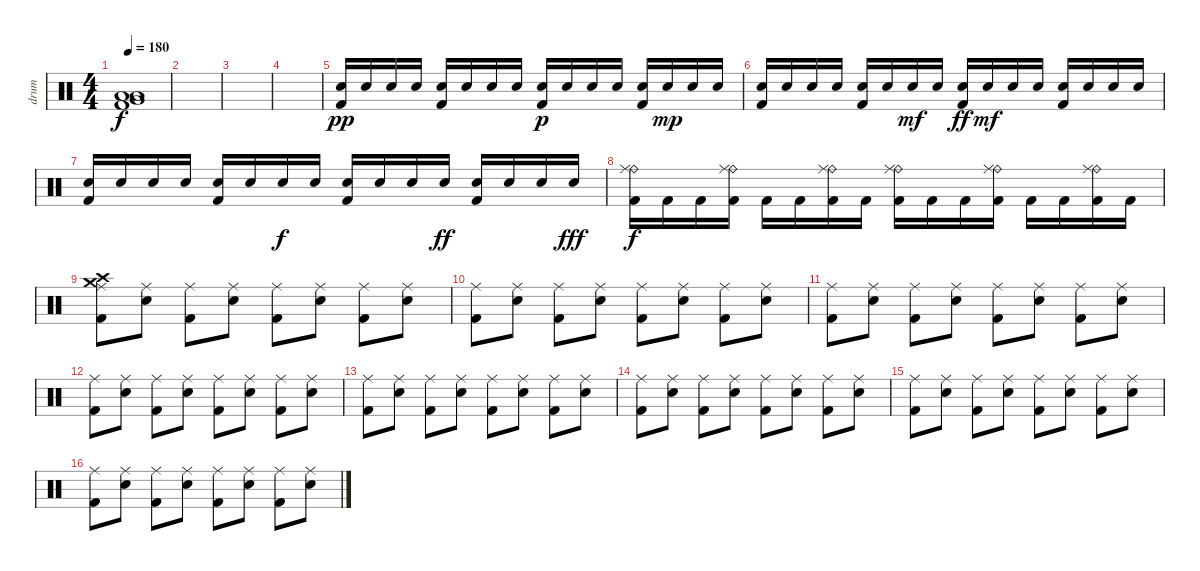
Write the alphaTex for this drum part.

\track ("drum" "drum") {instrument percussion}
\staff {score}
\articulation defaults
\ts (4 4)
\tempo 180
\clef neutral
\ks c
("Low Tom (hit)" "Low Floor Tom (hit)" "Very Low Tom (hit)" "Kick (hit) 2").1{dy f} |
|
|
|
("Electric Snare (hit)" "Kick (hit) 2").16{dy pp} "Electric Snare (hit)".16 "Electric Snare (hit)".16 "Electric Snare (hit)".16 ("Electric Snare (hit)" "Kick (hit) 2").16 "Electric Snare (hit)".16 "Electric Snare (hit)".16 "Electric Snare (hit)".16 ("Electric Snare (hit)" "Kick (hit) 2").16{dy p} "Electric Snare (hit)".16 "Electric Snare (hit)".16 "Electric Snare (hit)".16 ("Electric Snare (hit)" "Kick (hit) 2").16 "Electric Snare (hit)".16{dy mp} "Electric Snare (hit)".16 "Electric Snare (hit)".16 |
("Electric Snare (hit)" "Kick (hit) 2").16 "Electric Snare (hit)".16 "Electric Snare (hit)".16 "Electric Snare (hit)".16 ("Electric Snare (hit)" "Kick (hit) 2").16 "Electric Snare (hit)".16 "Electric Snare (hit)".16{dy mf} "Electric Snare (hit)".16 ("Electric Snare (hit)" "Kick (hit) 2").16{dy ff} "Electric Snare (hit)".16{dy mf} "Electric Snare (hit)".16 "Electric Snare (hit)".16 ("Electric Snare (hit)" "Kick (hit) 2").16 "Electric Snare (hit)".16 "Electric Snare (hit)".16 "Electric Snare (hit)".16 |
("Electric Snare (hit)" "Kick (hit) 2").16 "Electric Snare (hit)".16 "Electric Snare (hit)".16 "Electric Snare (hit)".16 ("Electric Snare (hit)" "Kick (hit) 2").16 "Electric Snare (hit)".16 "Electric Snare (hit)".16{dy f} "Electric Snare (hit)".16 ("Electric Snare (hit)" "Kick (hit) 2").16 "Electric Snare (hit)".16 "Electric Snare (hit)".16 "Electric Snare (hit)".16{dy ff} ("Electric Snare (hit)" "Kick (hit) 2").16 "Electric Snare (hit)".16 "Electric Snare (hit)".16 "Electric Snare (hit)".16{dy fff} |
("Ride (bell)" "Ride (middle)" "Kick (hit) 2").16{dy f} "Kick (hit) 2".16 "Kick (hit) 2".16 ("Ride (bell)" "Ride (middle)" "Kick (hit) 2").16 "Kick (hit) 2".16 "Kick (hit) 2".16 ("Ride (bell)" "Ride (middle)" "Kick (hit) 2").16 "Kick (hit) 2".16 ("Ride (bell)" "Ride (middle)" "Kick (hit) 2").16 "Kick (hit) 2".16 "Kick (hit) 2".16 ("Ride (bell)" "Ride (middle)" "Kick (hit) 2").16 "Kick (hit) 2".16 "Kick (hit) 2".16 ("Ride (bell)" "Ride (middle)" "Kick (hit) 2").16 "Kick (hit) 2".16 |
("Crash medium (hit)" "Ride (middle)" "Crash high (hit)" "Kick (hit) 2").8 ("Ride (middle)" "Electric Snare (hit)").8 ("Ride (middle)" "Kick (hit) 2").8 ("Ride (middle)" "Electric Snare (hit)").8 ("Ride (middle)" "Kick (hit) 2").8 ("Ride (middle)" "Electric Snare (hit)").8 ("Ride (middle)" "Kick (hit) 2").8 ("Ride (middle)" "Electric Snare (hit)").8 |
("Ride (middle)" "Kick (hit) 2").8 ("Ride (middle)" "Electric Snare (hit)").8 ("Ride (middle)" "Kick (hit) 2").8 ("Ride (middle)" "Electric Snare (hit)").8 ("Ride (middle)" "Kick (hit) 2").8 ("Ride (middle)" "Electric Snare (hit)").8 ("Ride (middle)" "Kick (hit) 2").8 ("Ride (middle)" "Electric Snare (hit)").8 |
("Ride (middle)" "Kick (hit) 2").8 ("Ride (middle)" "Electric Snare (hit)").8 ("Ride (middle)" "Kick (hit) 2").8 ("Ride (middle)" "Electric Snare (hit)").8 ("Ride (middle)" "Kick (hit) 2").8 ("Ride (middle)" "Electric Snare (hit)").8 ("Ride (middle)" "Kick (hit) 2").8 ("Ride (middle)" "Electric Snare (hit)").8 |
("Ride (middle)" "Kick (hit) 2").8 ("Ride (middle)" "Electric Snare (hit)").8 ("Ride (middle)" "Kick (hit) 2").8 ("Ride (middle)" "Electric Snare (hit)").8 ("Ride (middle)" "Kick (hit) 2").8 ("Ride (middle)" "Electric Snare (hit)").8 ("Ride (middle)" "Kick (hit) 2").8 ("Ride (middle)" "Electric Snare (hit)").8 |
("Ride (middle)" "Kick (hit) 2").8 ("Ride (middle)" "Electric Snare (hit)").8 ("Ride (middle)" "Kick (hit) 2").8 ("Ride (middle)" "Electric Snare (hit)").8 ("Ride (middle)" "Kick (hit) 2").8 ("Ride (middle)" "Electric Snare (hit)").8 ("Ride (middle)" "Kick (hit) 2").8 ("Ride (middle)" "Electric Snare (hit)").8 |
("Ride (middle)" "Kick (hit) 2").8 ("Ride (middle)" "Electric Snare (hit)").8 ("Ride (middle)" "Kick (hit) 2").8 ("Ride (middle)" "Electric Snare (hit)").8 ("Ride (middle)" "Kick (hit) 2").8 ("Ride (middle)" "Electric Snare (hit)").8 ("Ride (middle)" "Kick (hit) 2").8 ("Ride (middle)" "Electric Snare (hit)").8 |
("Ride (middle)" "Kick (hit) 2").8 ("Ride (middle)" "Electric Snare (hit)").8 ("Ride (middle)" "Kick (hit) 2").8 ("Ride (middle)" "Electric Snare (hit)").8 ("Ride (middle)" "Kick (hit) 2").8 ("Ride (middle)" "Electric Snare (hit)").8 ("Ride (middle)" "Kick (hit) 2").8 ("Ride (middle)" "Electric Snare (hit)").8 |
("Ride (middle)" "Kick (hit) 2").8 ("Ride (middle)" "Electric Snare (hit)").8 ("Ride (middle)" "Kick (hit) 2").8 ("Ride (middle)" "Electric Snare (hit)").8 ("Ride (middle)" "Kick (hit) 2").8 ("Ride (middle)" "Electric Snare (hit)").8 ("Ride (middle)" "Kick (hit) 2").8 ("Ride (middle)" "Electric Snare (hit)").8
